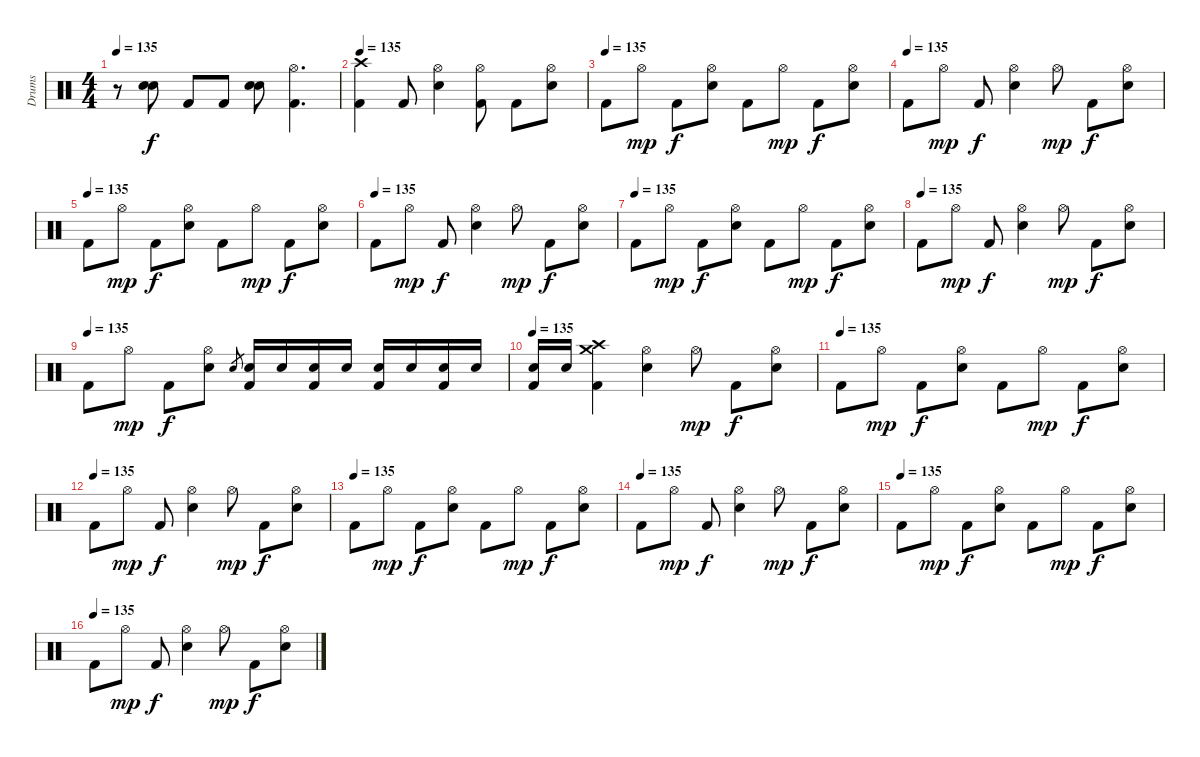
\track ("Drums" "Drums") {instrument percussion}
\staff {score}
\articulation defaults
\ts (4 4)
\tempo 135
\clef neutral
\ks c
r.8{dy ff} ("Snare (hit) 2" "Snare (hit) 2").8{dy f} "Kick (hit) 2".8 "Kick (hit) 2".8 ("Snare (hit) 2" "Snare (hit) 2").8 ("Hi-Hat (open)" "Kick (hit) 2").4{d} |
\tempo 135
("Crash high (hit)" "Kick (hit) 2").4 "Kick (hit) 2".8 ("Hi-Hat (open)" "Snare (hit) 2").4 ("Hi-Hat (open)" "Kick (hit) 2").8 "Kick (hit) 2".8 ("Hi-Hat (open)" "Snare (hit) 2").8 |
\tempo (135)
"Kick (hit) 2".8 "Hi-Hat (open)".8{dy mp} "Kick (hit) 2".8{dy f} ("Hi-Hat (open)" "Snare (hit) 2").8 "Kick (hit) 2".8 "Hi-Hat (open)".8{dy mp} "Kick (hit) 2".8{dy f} ("Hi-Hat (open)" "Snare (hit) 2").8 |
\tempo (135)
"Kick (hit) 2".8 "Hi-Hat (open)".8{dy mp} "Kick (hit) 2".8{dy f} ("Hi-Hat (open)" "Snare (hit) 2").4 "Hi-Hat (open)".8{dy mp} "Kick (hit) 2".8{dy f} ("Hi-Hat (open)" "Snare (hit) 2").8 |
\tempo (135)
"Kick (hit) 2".8 "Hi-Hat (open)".8{dy mp} "Kick (hit) 2".8{dy f} ("Hi-Hat (open)" "Snare (hit) 2").8 "Kick (hit) 2".8 "Hi-Hat (open)".8{dy mp} "Kick (hit) 2".8{dy f} ("Hi-Hat (open)" "Snare (hit) 2").8 |
\tempo (135)
"Kick (hit) 2".8 "Hi-Hat (open)".8{dy mp} "Kick (hit) 2".8{dy f} ("Hi-Hat (open)" "Snare (hit) 2").4 "Hi-Hat (open)".8{dy mp} "Kick (hit) 2".8{dy f} ("Hi-Hat (open)" "Snare (hit) 2").8 |
\tempo (135)
"Kick (hit) 2".8 "Hi-Hat (open)".8{dy mp} "Kick (hit) 2".8{dy f} ("Hi-Hat (open)" "Snare (hit) 2").8 "Kick (hit) 2".8 "Hi-Hat (open)".8{dy mp} "Kick (hit) 2".8{dy f} ("Hi-Hat (open)" "Snare (hit) 2").8 |
\tempo (135)
"Kick (hit) 2".8 "Hi-Hat (open)".8{dy mp} "Kick (hit) 2".8{dy f} ("Hi-Hat (open)" "Snare (hit) 2").4 "Hi-Hat (open)".8{dy mp} "Kick (hit) 2".8{dy f} ("Hi-Hat (open)" "Snare (hit) 2").8 |
\tempo (135)
"Kick (hit) 2".8 "Hi-Hat (open)".8{dy mp} "Kick (hit) 2".8{dy f} ("Hi-Hat (open)" "Snare (hit) 2").8 "Snare (hit) 2".8{gr} ("Snare (hit) 2" "Kick (hit) 2").16 "Snare (hit) 2".16 ("Snare (hit) 2" "Kick (hit) 2").16 "Snare (hit) 2".16 ("Snare (hit) 2" "Kick (hit) 2").16 "Snare (hit) 2".16 ("Snare (hit) 2" "Kick (hit) 2").16 "Snare (hit) 2".16 |
\tempo 135
("Snare (hit) 2" "Kick (hit) 2").16 "Snare (hit) 2".16 ("Crash medium (hit)" "Crash high (hit)" "Kick (hit) 2").4 ("Hi-Hat (open)" "Snare (hit) 2").4 "Hi-Hat (open)".8{dy mp} "Kick (hit) 2".8{dy f} ("Hi-Hat (open)" "Snare (hit) 2").8 |
\tempo (135)
"Kick (hit) 2".8 "Hi-Hat (open)".8{dy mp} "Kick (hit) 2".8{dy f} ("Hi-Hat (open)" "Snare (hit) 2").8 "Kick (hit) 2".8 "Hi-Hat (open)".8{dy mp} "Kick (hit) 2".8{dy f} ("Hi-Hat (open)" "Snare (hit) 2").8 |
\tempo (135)
"Kick (hit) 2".8 "Hi-Hat (open)".8{dy mp} "Kick (hit) 2".8{dy f} ("Hi-Hat (open)" "Snare (hit) 2").4 "Hi-Hat (open)".8{dy mp} "Kick (hit) 2".8{dy f} ("Hi-Hat (open)" "Snare (hit) 2").8 |
\tempo (135)
"Kick (hit) 2".8 "Hi-Hat (open)".8{dy mp} "Kick (hit) 2".8{dy f} ("Hi-Hat (open)" "Snare (hit) 2").8 "Kick (hit) 2".8 "Hi-Hat (open)".8{dy mp} "Kick (hit) 2".8{dy f} ("Hi-Hat (open)" "Snare (hit) 2").8 |
\tempo (135)
"Kick (hit) 2".8 "Hi-Hat (open)".8{dy mp} "Kick (hit) 2".8{dy f} ("Hi-Hat (open)" "Snare (hit) 2").4 "Hi-Hat (open)".8{dy mp} "Kick (hit) 2".8{dy f} ("Hi-Hat (open)" "Snare (hit) 2").8 |
\tempo (135)
"Kick (hit) 2".8 "Hi-Hat (open)".8{dy mp} "Kick (hit) 2".8{dy f} ("Hi-Hat (open)" "Snare (hit) 2").8 "Kick (hit) 2".8 "Hi-Hat (open)".8{dy mp} "Kick (hit) 2".8{dy f} ("Hi-Hat (open)" "Snare (hit) 2").8 |
\tempo (135)
"Kick (hit) 2".8 "Hi-Hat (open)".8{dy mp} "Kick (hit) 2".8{dy f} ("Hi-Hat (open)" "Snare (hit) 2").4 "Hi-Hat (open)".8{dy mp} "Kick (hit) 2".8{dy f} ("Hi-Hat (open)" "Snare (hit) 2").8
